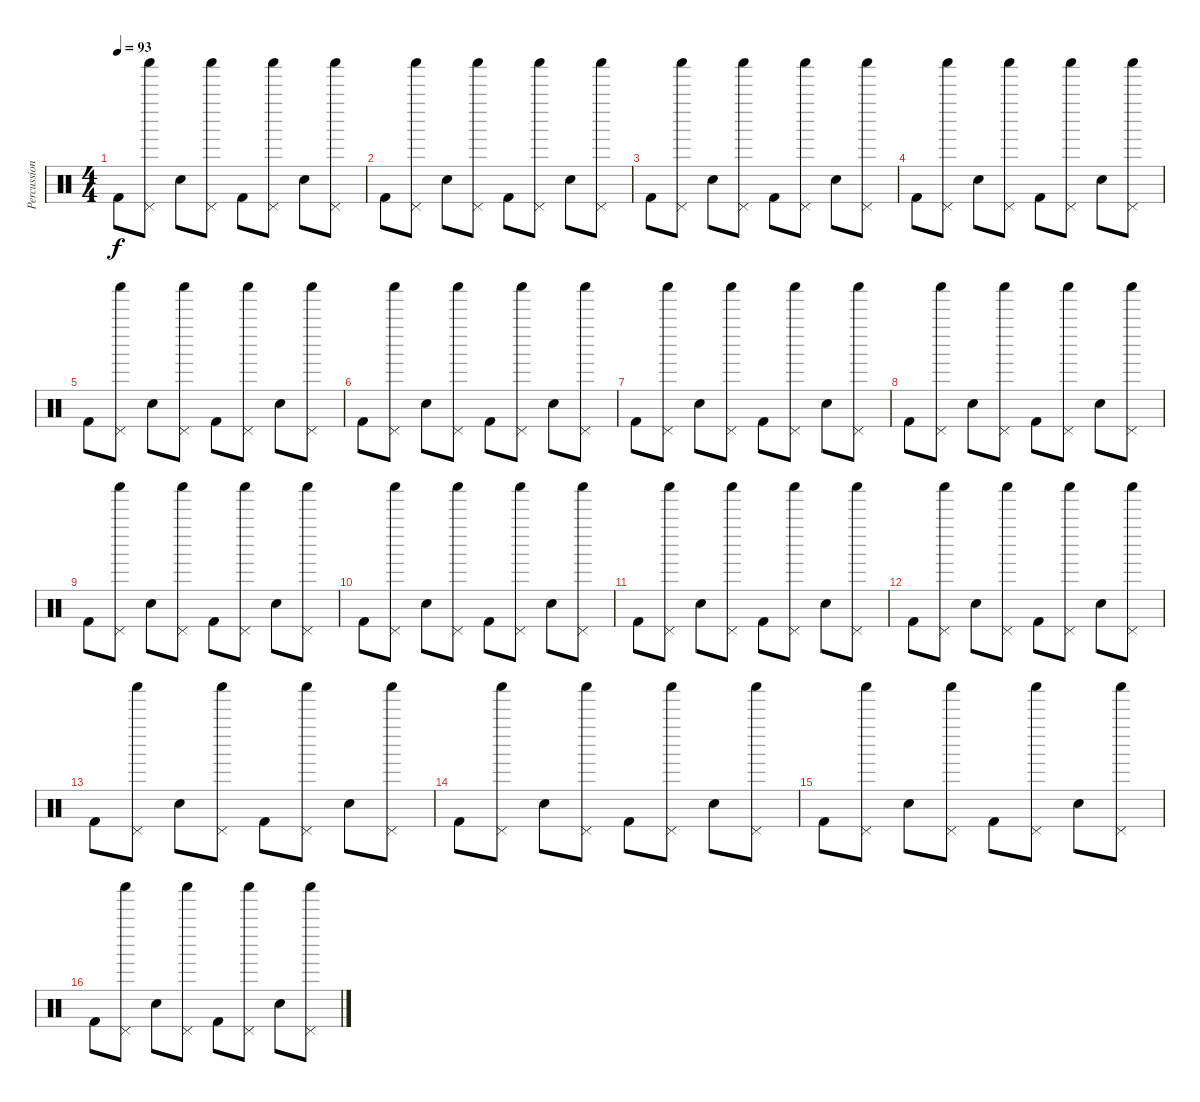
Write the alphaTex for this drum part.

\track ("Percussion" "Percussion") {instrument percussion}
\staff {score}
\articulation defaults
\ts (4 4)
\tempo 93
\clef neutral
\ks c "Kick (hit) 2".8{dy f}
("Shaker (hit)" "Pedal Hi-Hat (hit)").8 "Snare (hit) 2".8 ("Shaker (hit)" "Pedal Hi-Hat (hit)").8 "Kick (hit) 2".8 ("Shaker (hit)" "Pedal Hi-Hat (hit)").8 "Snare (hit) 2".8 ("Shaker (hit)" "Pedal Hi-Hat (hit)").8 |
"Kick (hit) 2".8 ("Shaker (hit)" "Pedal Hi-Hat (hit)").8 "Snare (hit) 2".8 ("Shaker (hit)" "Pedal Hi-Hat (hit)").8 "Kick (hit) 2".8 ("Shaker (hit)" "Pedal Hi-Hat (hit)").8 "Snare (hit) 2".8 ("Shaker (hit)" "Pedal Hi-Hat (hit)").8 |
"Kick (hit) 2".8 ("Shaker (hit)" "Pedal Hi-Hat (hit)").8 "Snare (hit) 2".8 ("Shaker (hit)" "Pedal Hi-Hat (hit)").8 "Kick (hit) 2".8 ("Shaker (hit)" "Pedal Hi-Hat (hit)").8 "Snare (hit) 2".8 ("Shaker (hit)" "Pedal Hi-Hat (hit)").8 |
"Kick (hit) 2".8 ("Shaker (hit)" "Pedal Hi-Hat (hit)").8 "Snare (hit) 2".8 ("Shaker (hit)" "Pedal Hi-Hat (hit)").8 "Kick (hit) 2".8 ("Shaker (hit)" "Pedal Hi-Hat (hit)").8 "Snare (hit) 2".8 ("Shaker (hit)" "Pedal Hi-Hat (hit)").8 |
"Kick (hit) 2".8 ("Shaker (hit)" "Pedal Hi-Hat (hit)").8 "Snare (hit) 2".8 ("Shaker (hit)" "Pedal Hi-Hat (hit)").8 "Kick (hit) 2".8 ("Shaker (hit)" "Pedal Hi-Hat (hit)").8 "Snare (hit) 2".8 ("Shaker (hit)" "Pedal Hi-Hat (hit)").8 |
"Kick (hit) 2".8 ("Shaker (hit)" "Pedal Hi-Hat (hit)").8 "Snare (hit) 2".8 ("Shaker (hit)" "Pedal Hi-Hat (hit)").8 "Kick (hit) 2".8 ("Shaker (hit)" "Pedal Hi-Hat (hit)").8 "Snare (hit) 2".8 ("Shaker (hit)" "Pedal Hi-Hat (hit)").8 |
"Kick (hit) 2".8 ("Shaker (hit)" "Pedal Hi-Hat (hit)").8 "Snare (hit) 2".8 ("Shaker (hit)" "Pedal Hi-Hat (hit)").8 "Kick (hit) 2".8 ("Shaker (hit)" "Pedal Hi-Hat (hit)").8 "Snare (hit) 2".8 ("Shaker (hit)" "Pedal Hi-Hat (hit)").8 |
"Kick (hit) 2".8 ("Shaker (hit)" "Pedal Hi-Hat (hit)").8 "Snare (hit) 2".8 ("Shaker (hit)" "Pedal Hi-Hat (hit)").8 "Kick (hit) 2".8 ("Shaker (hit)" "Pedal Hi-Hat (hit)").8 "Snare (hit) 2".8 ("Shaker (hit)" "Pedal Hi-Hat (hit)").8 |
"Kick (hit) 2".8 ("Shaker (hit)" "Pedal Hi-Hat (hit)").8 "Snare (hit) 2".8 ("Shaker (hit)" "Pedal Hi-Hat (hit)").8 "Kick (hit) 2".8 ("Shaker (hit)" "Pedal Hi-Hat (hit)").8 "Snare (hit) 2".8 ("Shaker (hit)" "Pedal Hi-Hat (hit)").8 |
"Kick (hit) 2".8 ("Shaker (hit)" "Pedal Hi-Hat (hit)").8 "Snare (hit) 2".8 ("Shaker (hit)" "Pedal Hi-Hat (hit)").8 "Kick (hit) 2".8 ("Shaker (hit)" "Pedal Hi-Hat (hit)").8 "Snare (hit) 2".8 ("Shaker (hit)" "Pedal Hi-Hat (hit)").8 |
"Kick (hit) 2".8 ("Shaker (hit)" "Pedal Hi-Hat (hit)").8 "Snare (hit) 2".8 ("Shaker (hit)" "Pedal Hi-Hat (hit)").8 "Kick (hit) 2".8 ("Shaker (hit)" "Pedal Hi-Hat (hit)").8 "Snare (hit) 2".8 ("Shaker (hit)" "Pedal Hi-Hat (hit)").8 |
"Kick (hit) 2".8 ("Shaker (hit)" "Pedal Hi-Hat (hit)").8 "Snare (hit) 2".8 ("Shaker (hit)" "Pedal Hi-Hat (hit)").8 "Kick (hit) 2".8 ("Shaker (hit)" "Pedal Hi-Hat (hit)").8 "Snare (hit) 2".8 ("Shaker (hit)" "Pedal Hi-Hat (hit)").8 |
"Kick (hit) 2".8 ("Shaker (hit)" "Pedal Hi-Hat (hit)").8 "Snare (hit) 2".8 ("Shaker (hit)" "Pedal Hi-Hat (hit)").8 "Kick (hit) 2".8 ("Shaker (hit)" "Pedal Hi-Hat (hit)").8 "Snare (hit) 2".8 ("Shaker (hit)" "Pedal Hi-Hat (hit)").8 |
"Kick (hit) 2".8 ("Shaker (hit)" "Pedal Hi-Hat (hit)").8 "Snare (hit) 2".8 ("Shaker (hit)" "Pedal Hi-Hat (hit)").8 "Kick (hit) 2".8 ("Shaker (hit)" "Pedal Hi-Hat (hit)").8 "Snare (hit) 2".8 ("Shaker (hit)" "Pedal Hi-Hat (hit)").8 |
"Kick (hit) 2".8 ("Shaker (hit)" "Pedal Hi-Hat (hit)").8 "Snare (hit) 2".8 ("Shaker (hit)" "Pedal Hi-Hat (hit)").8 "Kick (hit) 2".8 ("Shaker (hit)" "Pedal Hi-Hat (hit)").8 "Snare (hit) 2".8 ("Shaker (hit)" "Pedal Hi-Hat (hit)").8 |
"Kick (hit) 2".8 ("Shaker (hit)" "Pedal Hi-Hat (hit)").8 "Snare (hit) 2".8 ("Shaker (hit)" "Pedal Hi-Hat (hit)").8 "Kick (hit) 2".8 ("Shaker (hit)" "Pedal Hi-Hat (hit)").8 "Snare (hit) 2".8 ("Shaker (hit)" "Pedal Hi-Hat (hit)").8
